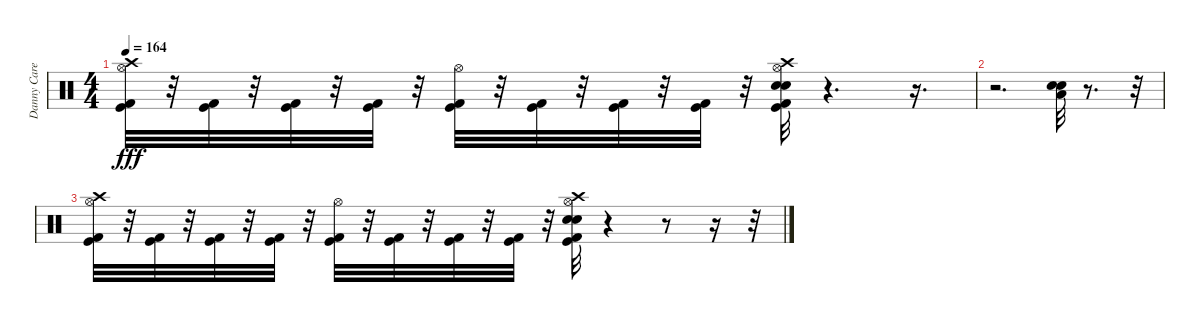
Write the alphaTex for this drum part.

\track ("Danny Carey" "Danny Care") {instrument percussion}
\staff {score}
\articulation defaults
\ts (4 4)
\tempo 164
\clef neutral
\ks c
("Crash high (hit)" "Hi-Hat (open)" "Kick (hit)" "Kick (hit) 2").32{dy fff} r.32 ("Kick (hit)" "Kick (hit) 2").32 r.32 ("Kick (hit) 2" "Kick (hit)").32 r.32 ("Kick (hit) 2" "Kick (hit)").32 r.32 ("Hi-Hat (open)" "Kick (hit)" "Kick (hit) 2").32 r.32 ("Kick (hit) 2" "Kick (hit)").32 r.32 ("Kick (hit) 2" "Kick (hit)").32 r.32 ("Kick (hit)" "Kick (hit) 2").32 r.32 ("Hi-Hat (open)" "Crash high (hit)" "Kick (hit)" "Kick (hit) 2" "Electric Snare (hit)" "Snare (hit) 2").32 r.4{d} r.16{d} |
r.2{d} ("Snare (hit) 2" "Low Floor Tom (hit)" "Electric Snare (hit)").32 r.8{d} r.32 |
("Crash high (hit)" "Hi-Hat (open)" "Kick (hit)" "Kick (hit) 2").32 r.32 ("Kick (hit)" "Kick (hit) 2").32 r.32 ("Kick (hit) 2" "Kick (hit)").32 r.32 ("Kick (hit) 2" "Kick (hit)").32 r.32 ("Hi-Hat (open)" "Kick (hit)" "Kick (hit) 2").32 r.32 ("Kick (hit) 2" "Kick (hit)").32 r.32 ("Kick (hit) 2" "Kick (hit)").32 r.32 ("Kick (hit)" "Kick (hit) 2").32 r.32 ("Hi-Hat (open)" "Crash high (hit)" "Kick (hit)" "Kick (hit) 2" "Electric Snare (hit)" "Snare (hit) 2").32 r.4 r.8 r.16 r.32
